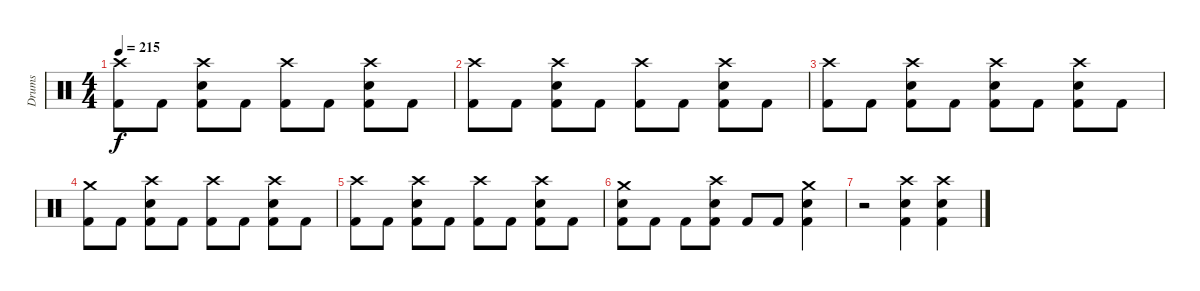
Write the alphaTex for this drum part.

\track ("Drums" "Drums") {instrument percussion}
\staff {score}
\articulation defaults
\ts (4 4)
\tempo 215
\clef neutral
\ks c
("Crash high (hit)" "Kick (hit) 2").8{dy f} "Kick (hit) 2".8 ("Crash high (hit)" "Snare (hit) 2" "Kick (hit) 2").8 "Kick (hit) 2".8 ("Crash high (hit)" "Kick (hit) 2").8 "Kick (hit) 2".8 ("Crash high (hit)" "Snare (hit) 2" "Kick (hit) 2").8 "Kick (hit) 2".8 |
("Crash high (hit)" "Kick (hit) 2").8 "Kick (hit) 2".8 ("Crash high (hit)" "Snare (hit) 2" "Kick (hit) 2").8 "Kick (hit) 2".8 ("Crash high (hit)" "Kick (hit) 2").8 "Kick (hit) 2".8 ("Crash high (hit)" "Snare (hit) 2" "Kick (hit) 2").8 "Kick (hit) 2".8 |
("Crash high (hit)" "Kick (hit) 2").8 "Kick (hit) 2".8 ("Crash high (hit)" "Snare (hit) 2" "Kick (hit) 2").8 "Kick (hit) 2".8 ("Crash high (hit)" "Snare (hit) 2" "Kick (hit) 2").8 "Kick (hit) 2".8 ("Crash high (hit)" "Snare (hit) 2" "Kick (hit) 2").8 "Kick (hit) 2".8 |
("Crash medium (hit)" "Kick (hit) 2").8 "Kick (hit) 2".8 ("Crash high (hit)" "Snare (hit) 2" "Kick (hit) 2").8 "Kick (hit) 2".8 ("Crash high (hit)" "Kick (hit) 2").8 "Kick (hit) 2".8 ("Crash high (hit)" "Snare (hit) 2" "Kick (hit) 2").8 "Kick (hit) 2".8 |
("Crash high (hit)" "Kick (hit) 2").8 "Kick (hit) 2".8 ("Crash high (hit)" "Snare (hit) 2" "Kick (hit) 2").8 "Kick (hit) 2".8 ("Crash high (hit)" "Kick (hit) 2").8 "Kick (hit) 2".8 ("Crash high (hit)" "Snare (hit) 2" "Kick (hit) 2").8 "Kick (hit) 2".8 |
("Crash medium (hit)" "Snare (hit) 2" "Kick (hit) 2").8 "Kick (hit) 2".8 "Kick (hit) 2".8 ("Crash high (hit)" "Snare (hit) 2" "Kick (hit) 2").8 "Kick (hit) 2".8 "Kick (hit) 2".8 ("Crash medium (hit)" "Snare (hit) 2" "Kick (hit) 2").4 |
r.2 ("Crash high (hit)" "Snare (hit) 2" "Kick (hit) 2").4 ("Crash high (hit)" "Snare (hit) 2" "Kick (hit) 2").4
